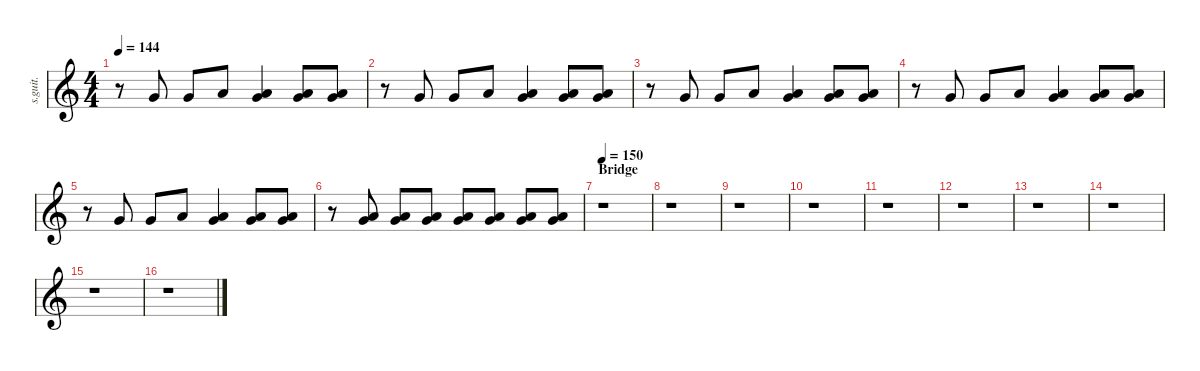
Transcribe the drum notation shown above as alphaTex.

\defaultSystemsLayout 4
\hideDynamics
\bracketExtendMode nobrackets
\track ("Chris Fehn" "s.guit.") {instrument percussion}
\staff {score}
\articulation defaults
\ts (4 4)
\tempo 144
\clef g2
\ks c
r.8{dy f} "Very Low Tom (hit)".8 "Very Low Tom (hit)".8 "Low Floor Tom (hit)".8 ("Very Low Tom (hit)" "Low Floor Tom (hit)").4 ("Very Low Tom (hit)" "Low Floor Tom (hit)").8 ("Very Low Tom (hit)" "Low Floor Tom (hit)").8 |
r.8 "Very Low Tom (hit)".8 "Very Low Tom (hit)".8 "Low Floor Tom (hit)".8 ("Very Low Tom (hit)" "Low Floor Tom (hit)").4 ("Very Low Tom (hit)" "Low Floor Tom (hit)").8 ("Very Low Tom (hit)" "Low Floor Tom (hit)").8 |
r.8 "Very Low Tom (hit)".8 "Very Low Tom (hit)".8 "Low Floor Tom (hit)".8 ("Very Low Tom (hit)" "Low Floor Tom (hit)").4 ("Very Low Tom (hit)" "Low Floor Tom (hit)").8 ("Very Low Tom (hit)" "Low Floor Tom (hit)").8 |
r.8 "Very Low Tom (hit)".8 "Very Low Tom (hit)".8 "Low Floor Tom (hit)".8 ("Very Low Tom (hit)" "Low Floor Tom (hit)").4 ("Very Low Tom (hit)" "Low Floor Tom (hit)").8 ("Very Low Tom (hit)" "Low Floor Tom (hit)").8 |
r.8 "Very Low Tom (hit)".8 "Very Low Tom (hit)".8 "Low Floor Tom (hit)".8 ("Very Low Tom (hit)" "Low Floor Tom (hit)").4 ("Very Low Tom (hit)" "Low Floor Tom (hit)").8 ("Very Low Tom (hit)" "Low Floor Tom (hit)").8 |
r.8 ("Very Low Tom (hit)" "Low Floor Tom (hit)").8 ("Very Low Tom (hit)" "Low Floor Tom (hit)").8 ("Very Low Tom (hit)" "Low Floor Tom (hit)").8 ("Very Low Tom (hit)" "Low Floor Tom (hit)").8 ("Very Low Tom (hit)" "Low Floor Tom (hit)").8 ("Very Low Tom (hit)" "Low Floor Tom (hit)").8 ("Very Low Tom (hit)" "Low Floor Tom (hit)").8 |
\section ("" "Bridge")
\tempo 150
r.1 |
r.1 |
r.1 |
r.1 |
r.1 |
r.1 |
r.1 |
r.1 |
r.1 |
r.1
